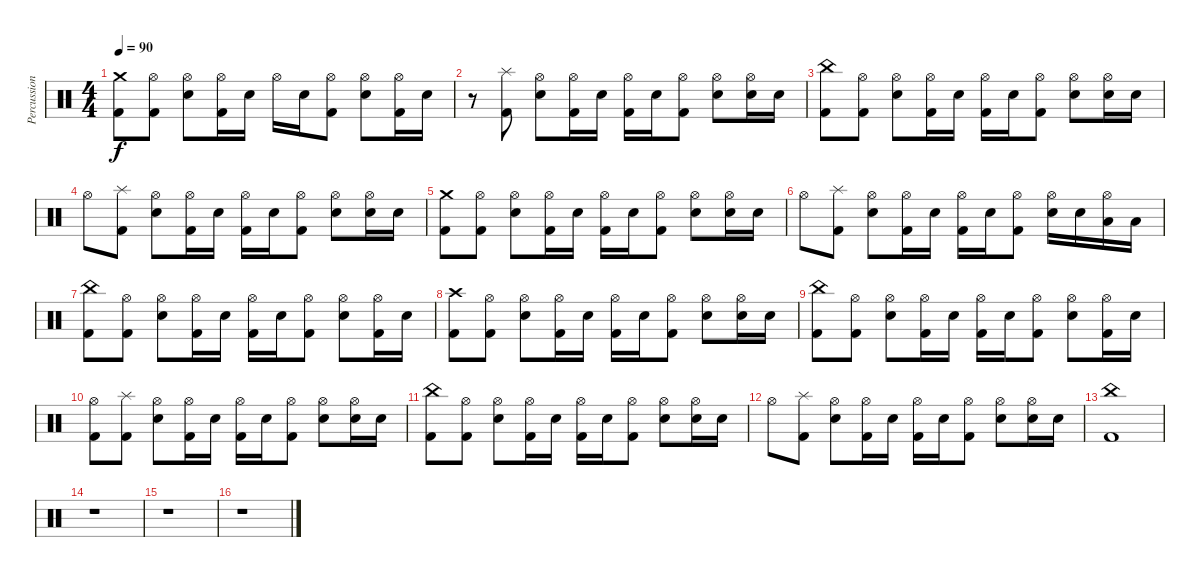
\track ("Percussion" "Percussion") {instrument percussion}
\staff {score}
\articulation defaults
\ts (4 4)
\tempo 90
\clef neutral
\ks c
("Kick (hit) 2" "Crash medium (hit)").8{dy f} ("Kick (hit) 2" "Hi-Hat (open)").8 ("Electric Snare (hit)" "Hi-Hat (open)").8 ("Kick (hit) 2" "Hi-Hat (open)").16 "Electric Snare (hit)".16 "Hi-Hat (open)".16 "Electric Snare (hit)".16 ("Kick (hit) 2" "Hi-Hat (open)").8 ("Electric Snare (hit)" "Hi-Hat (open)").8 ("Kick (hit) 2" "Hi-Hat (open)").16 "Electric Snare (hit)".16 |
r.8 ("Kick (hit) 2" "Splash (hit)").8 ("Electric Snare (hit)" "Hi-Hat (open)").8 ("Kick (hit) 2" "Hi-Hat (open)").16 "Electric Snare (hit)".16 ("Kick (hit) 2" "Hi-Hat (open)").16 "Electric Snare (hit)".16 ("Kick (hit) 2" "Hi-Hat (open)").8 ("Electric Snare (hit)" "Hi-Hat (open)").8 ("Electric Snare (hit)" "Hi-Hat (open)").16 "Electric Snare (hit)".16 |
("Kick (hit) 2" "China (hit)").8 ("Kick (hit) 2" "Hi-Hat (open)").8 ("Electric Snare (hit)" "Hi-Hat (open)").8 ("Kick (hit) 2" "Hi-Hat (open)").16 "Electric Snare (hit)".16 ("Kick (hit) 2" "Hi-Hat (open)").16 "Electric Snare (hit)".16 ("Kick (hit) 2" "Hi-Hat (open)").8 ("Electric Snare (hit)" "Hi-Hat (open)").8 ("Electric Snare (hit)" "Hi-Hat (open)").16 "Electric Snare (hit)".16 |
"Hi-Hat (open)".8 ("Kick (hit) 2" "Splash (hit)").8 ("Electric Snare (hit)" "Hi-Hat (open)").8 ("Kick (hit) 2" "Hi-Hat (open)").16 "Electric Snare (hit)".16 ("Kick (hit) 2" "Hi-Hat (open)").16 "Electric Snare (hit)".16 ("Kick (hit) 2" "Hi-Hat (open)").8 ("Electric Snare (hit)" "Hi-Hat (open)").8 ("Electric Snare (hit)" "Hi-Hat (open)").16 "Electric Snare (hit)".16 |
("Kick (hit) 2" "Crash medium (hit)").8 ("Kick (hit) 2" "Hi-Hat (open)").8 ("Electric Snare (hit)" "Hi-Hat (open)").8 ("Kick (hit) 2" "Hi-Hat (open)").16 "Electric Snare (hit)".16 ("Kick (hit) 2" "Hi-Hat (open)").16 "Electric Snare (hit)".16 ("Kick (hit) 2" "Hi-Hat (open)").8 ("Electric Snare (hit)" "Hi-Hat (open)").8 ("Electric Snare (hit)" "Hi-Hat (open)").16 "Electric Snare (hit)".16 |
"Hi-Hat (open)".8 ("Kick (hit) 2" "Splash (hit)").8 ("Electric Snare (hit)" "Hi-Hat (open)").8 ("Kick (hit) 2" "Hi-Hat (open)").16 "Electric Snare (hit)".16 ("Kick (hit) 2" "Hi-Hat (open)").16 "Electric Snare (hit)".16 ("Kick (hit) 2" "Hi-Hat (open)").8 ("Electric Snare (hit)" "Hi-Hat (open)").16 "Electric Snare (hit)".16 ("Low Floor Tom (hit)" "Hi-Hat (open)").16 "Low Floor Tom (hit)".16 |
("Kick (hit) 2" "China (hit)").8 ("Kick (hit) 2" "Hi-Hat (open)").8 ("Electric Snare (hit)" "Hi-Hat (open)").8 ("Kick (hit) 2" "Hi-Hat (open)").16 "Electric Snare (hit)".16 ("Kick (hit) 2" "Hi-Hat (open)").16 "Electric Snare (hit)".16 ("Kick (hit) 2" "Hi-Hat (open)").8 ("Electric Snare (hit)" "Hi-Hat (open)").8 ("Kick (hit) 2" "Hi-Hat (open)").16 "Electric Snare (hit)".16 |
("Kick (hit) 2" "Crash high (hit)").8 ("Kick (hit) 2" "Hi-Hat (open)").8 ("Electric Snare (hit)" "Hi-Hat (open)").8 ("Kick (hit) 2" "Hi-Hat (open)").16 "Electric Snare (hit)".16 ("Kick (hit) 2" "Hi-Hat (open)").16 "Electric Snare (hit)".16 ("Kick (hit) 2" "Hi-Hat (open)").8 ("Electric Snare (hit)" "Hi-Hat (open)").8 ("Electric Snare (hit)" "Hi-Hat (open)").16 "Electric Snare (hit)".16 |
("Kick (hit) 2" "China (hit)").8 ("Kick (hit) 2" "Hi-Hat (open)").8 ("Electric Snare (hit)" "Hi-Hat (open)").8 ("Kick (hit) 2" "Hi-Hat (open)").16 "Electric Snare (hit)".16 ("Kick (hit) 2" "Hi-Hat (open)").16 "Electric Snare (hit)".16 ("Kick (hit) 2" "Hi-Hat (open)").8 ("Electric Snare (hit)" "Hi-Hat (open)").8 ("Kick (hit) 2" "Hi-Hat (open)").16 "Electric Snare (hit)".16 |
("Kick (hit) 2" "Hi-Hat (open)").8 ("Kick (hit) 2" "Splash (hit)").8 ("Electric Snare (hit)" "Hi-Hat (open)").8 ("Kick (hit) 2" "Hi-Hat (open)").16 "Electric Snare (hit)".16 ("Kick (hit) 2" "Hi-Hat (open)").16 "Electric Snare (hit)".16 ("Kick (hit) 2" "Hi-Hat (open)").8 ("Electric Snare (hit)" "Hi-Hat (open)").8 ("Electric Snare (hit)" "Hi-Hat (open)").16 "Electric Snare (hit)".16 |
("Kick (hit) 2" "China (hit)").8 ("Kick (hit) 2" "Hi-Hat (open)").8 ("Electric Snare (hit)" "Hi-Hat (open)").8 ("Kick (hit) 2" "Hi-Hat (open)").16 "Electric Snare (hit)".16 ("Kick (hit) 2" "Hi-Hat (open)").16 "Electric Snare (hit)".16 ("Kick (hit) 2" "Hi-Hat (open)").8 ("Electric Snare (hit)" "Hi-Hat (open)").8 ("Electric Snare (hit)" "Hi-Hat (open)").16 "Electric Snare (hit)".16 |
"Hi-Hat (open)".8 ("Kick (hit) 2" "Splash (hit)").8 ("Electric Snare (hit)" "Hi-Hat (open)").8 ("Kick (hit) 2" "Hi-Hat (open)").16 "Electric Snare (hit)".16 ("Kick (hit) 2" "Hi-Hat (open)").16 "Electric Snare (hit)".16 ("Kick (hit) 2" "Hi-Hat (open)").8 ("Electric Snare (hit)" "Hi-Hat (open)").8 ("Electric Snare (hit)" "Hi-Hat (open)").16 "Electric Snare (hit)".16 |
("China (hit)" "Kick (hit) 2").1 |
r.1 |
r.1 |
r.1
